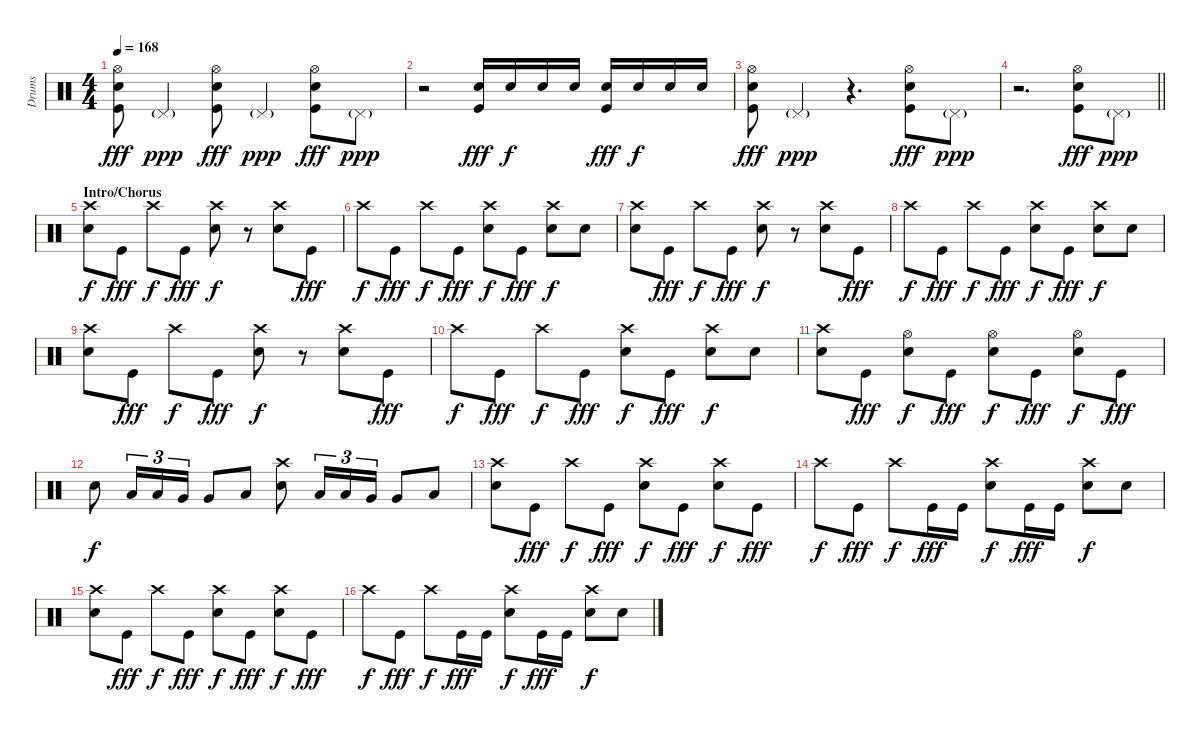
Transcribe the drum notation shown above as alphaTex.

\track ("Drums" "Drums") {instrument percussion}
\staff {score}
\articulation defaults
\ts (4 4)
\tempo 168
\clef neutral
\ks c
("Hi-Hat (open)" "Snare (hit) 2" "Kick (hit)").8{dy fff} "Pedal Hi-Hat (hit)"{g}.4{dy ppp} ("Hi-Hat (open)" "Snare (hit) 2" "Kick (hit)").8{dy fff} "Pedal Hi-Hat (hit)"{g}.4{dy ppp} ("Hi-Hat (open)" "Snare (hit) 2" "Kick (hit)").8{dy fff} "Pedal Hi-Hat (hit)"{g}.8{dy ppp} |
r.2 ("Snare (hit) 2" "Kick (hit)").16{dy fff} "Snare (hit) 2".16{dy f} "Snare (hit) 2".16 "Snare (hit) 2".16 ("Snare (hit) 2" "Kick (hit)").16{dy fff} "Snare (hit) 2".16{dy f} "Snare (hit) 2".16 "Snare (hit) 2".16 |
("Hi-Hat (open)" "Snare (hit) 2" "Kick (hit)").8{dy fff} "Pedal Hi-Hat (hit)"{g}.4{dy ppp} r.4{d} ("Hi-Hat (open)" "Snare (hit) 2" "Kick (hit)").8{dy fff} "Pedal Hi-Hat (hit)"{g}.8{dy ppp} |
\barLineRight lightlight
r.2{d} ("Hi-Hat (open)" "Snare (hit) 2" "Kick (hit)").8{dy fff} "Pedal Hi-Hat (hit)"{g}.8{dy ppp} |
\section ("" "Intro/Chorus")
("Crash high (hit)" "Snare (hit) 2").8{dy f} "Kick (hit)".8{dy fff} "Crash high (hit)".8{dy f} "Kick (hit)".8{dy fff} ("Crash high (hit)" "Snare (hit) 2").8{dy f} r.8 ("Crash high (hit)" "Snare (hit) 2").8 "Kick (hit)".8{dy fff} |
"Crash high (hit)".8{dy f} "Kick (hit)".8{dy fff} "Crash high (hit)".8{dy f} "Kick (hit)".8{dy fff} ("Crash high (hit)" "Snare (hit) 2").8{dy f} "Kick (hit)".8{dy fff} ("Crash high (hit)" "Snare (hit) 2").8{dy f} "Snare (hit) 2".8 |
("Crash high (hit)" "Snare (hit) 2").8 "Kick (hit)".8{dy fff} "Crash high (hit)".8{dy f} "Kick (hit)".8{dy fff} ("Crash high (hit)" "Snare (hit) 2").8{dy f} r.8 ("Crash high (hit)" "Snare (hit) 2").8 "Kick (hit)".8{dy fff} |
"Crash high (hit)".8{dy f} "Kick (hit)".8{dy fff} "Crash high (hit)".8{dy f} "Kick (hit)".8{dy fff} ("Crash high (hit)" "Snare (hit) 2").8{dy f} "Kick (hit)".8{dy fff} ("Crash high (hit)" "Snare (hit) 2").8{dy f} "Snare (hit) 2".8 |
("Crash high (hit)" "Snare (hit) 2").8 "Kick (hit)".8{dy fff} "Crash high (hit)".8{dy f} "Kick (hit)".8{dy fff} ("Crash high (hit)" "Snare (hit) 2").8{dy f} r.8 ("Crash high (hit)" "Snare (hit) 2").8 "Kick (hit)".8{dy fff} |
"Crash high (hit)".8{dy f} "Kick (hit)".8{dy fff} "Crash high (hit)".8{dy f} "Kick (hit)".8{dy fff} ("Crash high (hit)" "Snare (hit) 2").8{dy f} "Kick (hit)".8{dy fff} ("Crash high (hit)" "Snare (hit) 2").8{dy f} "Snare (hit) 2".8 |
("Crash high (hit)" "Snare (hit) 2").8 "Kick (hit)".8{dy fff} ("Hi-Hat (open)" "Snare (hit) 2").8{dy f} "Kick (hit)".8{dy fff} ("Hi-Hat (open)" "Snare (hit) 2").8{dy f} "Kick (hit)".8{dy fff} ("Hi-Hat (open)" "Snare (hit) 2").8{dy f} "Kick (hit)".8{dy fff} |
"Snare (hit) 2".8{dy f} "Low Tom (hit)".16{tu (3 2)} "Low Tom (hit)".16{tu (3 2)} "Very Low Tom (hit)".16{tu (3 2)} "Very Low Tom (hit)".8 "Low Floor Tom (hit)".8 ("Crash high (hit)" "Snare (hit) 2").8 "Low Tom (hit)".16{tu (3 2)} "Low Tom (hit)".16{tu (3 2)} "Very Low Tom (hit)".16{tu (3 2)} "Very Low Tom (hit)".8 "Low Floor Tom (hit)".8 |
("Crash high (hit)" "Snare (hit) 2").8 "Kick (hit)".8{dy fff} "Crash high (hit)".8{dy f} "Kick (hit)".8{dy fff} ("Crash high (hit)" "Snare (hit) 2").8{dy f} "Kick (hit)".8{dy fff} ("Crash high (hit)" "Snare (hit) 2").8{dy f} "Kick (hit)".8{dy fff} |
"Crash high (hit)".8{dy f} "Kick (hit)".8{dy fff} "Crash high (hit)".8{dy f} "Kick (hit)".16{dy fff} "Kick (hit)".16 ("Crash high (hit)" "Snare (hit) 2").8{dy f} "Kick (hit)".16{dy fff} "Kick (hit)".16 ("Crash high (hit)" "Snare (hit) 2").8{dy f} "Snare (hit) 2".8 |
("Crash high (hit)" "Snare (hit) 2").8 "Kick (hit)".8{dy fff} "Crash high (hit)".8{dy f} "Kick (hit)".8{dy fff} ("Crash high (hit)" "Snare (hit) 2").8{dy f} "Kick (hit)".8{dy fff} ("Crash high (hit)" "Snare (hit) 2").8{dy f} "Kick (hit)".8{dy fff} |
"Crash high (hit)".8{dy f} "Kick (hit)".8{dy fff} "Crash high (hit)".8{dy f} "Kick (hit)".16{dy fff} "Kick (hit)".16 ("Crash high (hit)" "Snare (hit) 2").8{dy f} "Kick (hit)".16{dy fff} "Kick (hit)".16 ("Crash high (hit)" "Snare (hit) 2").8{dy f} "Snare (hit) 2".8
